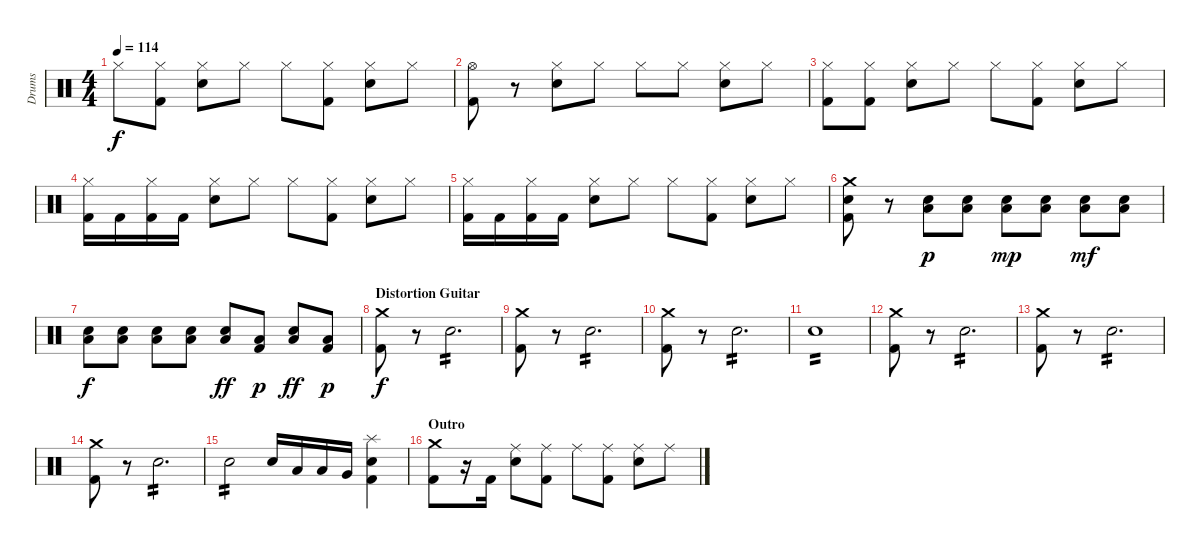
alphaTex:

\track ("Drums" "Drums") {instrument percussion}
\staff {score}
\articulation defaults
\ts (4 4)
\tempo 114
\clef neutral
\ks c "Hi-Hat (closed)".8{dy f}
("Hi-Hat (closed)" "Kick (hit) 2").8 ("Hi-Hat (closed)" "Electric Snare (hit)").8 "Hi-Hat (closed)".8 "Hi-Hat (closed)".8 ("Hi-Hat (closed)" "Kick (hit) 2").8 ("Hi-Hat (closed)" "Electric Snare (hit)").8 "Hi-Hat (closed)".8 |
("Hi-Hat (open)" "Kick (hit) 2").8 r.8 ("Hi-Hat (closed)" "Electric Snare (hit)").8 "Hi-Hat (closed)".8 "Hi-Hat (closed)".8 "Hi-Hat (closed)".8 ("Hi-Hat (closed)" "Electric Snare (hit)").8 "Hi-Hat (closed)".8 |
("Hi-Hat (closed)" "Kick (hit) 2").8 ("Hi-Hat (closed)" "Kick (hit) 2").8 ("Hi-Hat (closed)" "Electric Snare (hit)").8 "Hi-Hat (closed)".8 "Hi-Hat (closed)".8 ("Hi-Hat (closed)" "Kick (hit) 2").8 ("Hi-Hat (closed)" "Electric Snare (hit)").8 "Hi-Hat (closed)".8 |
("Hi-Hat (closed)" "Kick (hit) 2").16 "Kick (hit) 2".16 ("Hi-Hat (closed)" "Kick (hit) 2").16 "Kick (hit) 2".16 ("Hi-Hat (closed)" "Electric Snare (hit)").8 "Hi-Hat (closed)".8 "Hi-Hat (closed)".8 ("Hi-Hat (closed)" "Kick (hit) 2").8 ("Hi-Hat (closed)" "Electric Snare (hit)").8 "Hi-Hat (closed)".8 |
("Hi-Hat (closed)" "Kick (hit) 2").16 "Kick (hit) 2".16 ("Hi-Hat (closed)" "Kick (hit) 2").16 "Kick (hit) 2".16 ("Hi-Hat (closed)" "Electric Snare (hit)").8 "Hi-Hat (closed)".8 "Hi-Hat (closed)".8 ("Hi-Hat (closed)" "Kick (hit) 2").8 ("Hi-Hat (closed)" "Electric Snare (hit)").8 "Hi-Hat (closed)".8 |
("Crash medium (hit)" "Electric Snare (hit)" "Kick (hit) 2").8 r.8 ("Low Floor Tom (hit)" "Electric Snare (hit)").8{dy p} ("Low Floor Tom (hit)" "Electric Snare (hit)").8 ("Low Floor Tom (hit)" "Electric Snare (hit)").8{dy mp} ("Low Floor Tom (hit)" "Electric Snare (hit)").8 ("Low Floor Tom (hit)" "Electric Snare (hit)").8{dy mf} ("Low Floor Tom (hit)" "Electric Snare (hit)").8 |
("Low Floor Tom (hit)" "Electric Snare (hit)").8{dy f} ("Low Floor Tom (hit)" "Electric Snare (hit)").8 ("Low Floor Tom (hit)" "Electric Snare (hit)").8 ("Low Floor Tom (hit)" "Electric Snare (hit)").8 ("Low Floor Tom (hit)" "Electric Snare (hit)").8{dy ff} ("Low Floor Tom (hit)" "Kick (hit) 2").8{dy p} ("Low Floor Tom (hit)" "Electric Snare (hit)").8{dy ff} ("Low Floor Tom (hit)" "Kick (hit) 2").8{dy p} |
\section ("" "Distortion Guitar")
("Crash medium (hit)" "Kick (hit) 2").8{dy f} r.8 "Electric Snare (hit)".2{d tp 2} |
("Crash medium (hit)" "Kick (hit) 2").8 r.8 "Electric Snare (hit)".2{d tp 2} |
("Crash medium (hit)" "Kick (hit) 2").8 r.8 "Electric Snare (hit)".2{d tp 2} |
"Electric Snare (hit)".1{tp 2} |
("Crash medium (hit)" "Kick (hit) 2").8 r.8 "Electric Snare (hit)".2{d tp 2} |
("Crash medium (hit)" "Kick (hit) 2").8 r.8 "Electric Snare (hit)".2{d tp 2} |
("Crash medium (hit)" "Kick (hit) 2").8 r.8 "Electric Snare (hit)".2{d tp 2} |
"Electric Snare (hit)".2{tp 2} "Electric Snare (hit)".16 "Low Tom (hit)".16 "Low Tom (hit)".16 "Very Low Tom (hit)".16 ("Splash (hit)" "Electric Snare (hit)" "Kick (hit) 2").4 |
\section ("" "Outro")
("Crash medium (hit)" "Kick (hit) 2").8 r.16 "Kick (hit) 2".16 ("Ride (middle)" "Electric Snare (hit)").8 ("Ride (middle)" "Kick (hit) 2").8 "Ride (middle)".8 ("Ride (middle)" "Kick (hit) 2").8 ("Ride (middle)" "Electric Snare (hit)").8 "Ride (middle)".8
